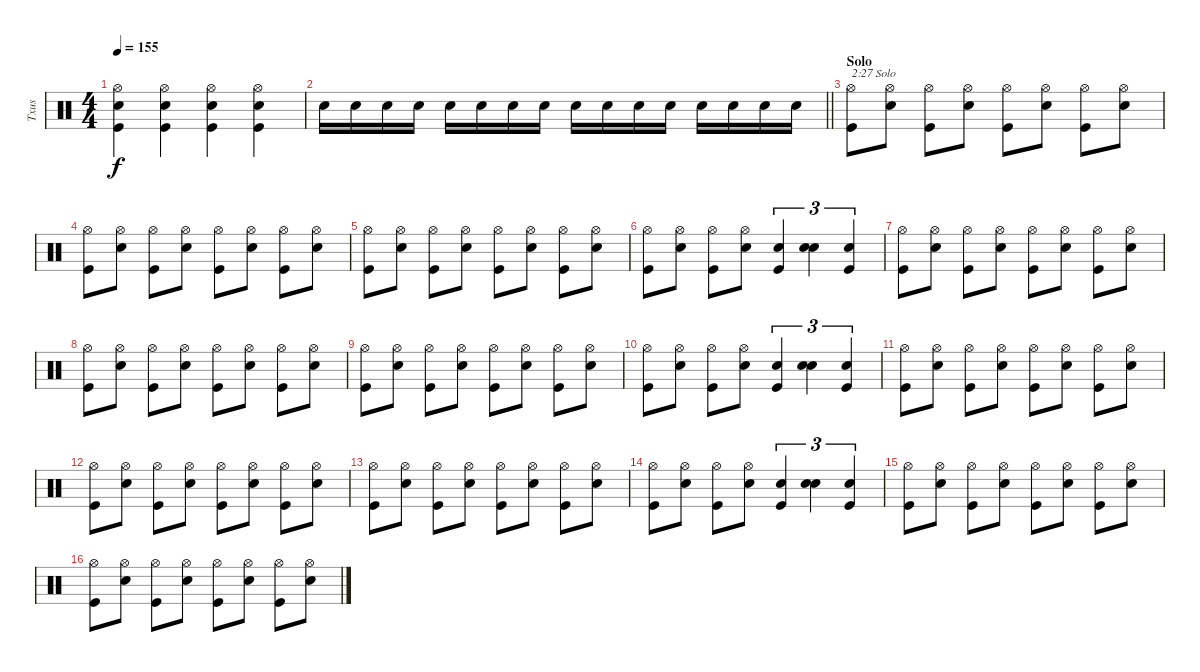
\track ("Txus" "Txus") {instrument percussion}
\staff {score}
\articulation defaults
\ts (4 4)
\tempo 155
\clef neutral
\ks c
("Kick (hit)" "Snare (hit) 2" "Hi-Hat (open)").4{dy f} ("Kick (hit)" "Snare (hit) 2" "Hi-Hat (open)").4 ("Kick (hit)" "Snare (hit) 2" "Hi-Hat (open)").4 ("Kick (hit)" "Snare (hit) 2" "Hi-Hat (open)").4 |
\barLineRight lightlight "Snare (hit) 2".16 "Snare (hit) 2".16 "Snare (hit) 2".16 "Snare (hit) 2".16 "Snare (hit) 2".16 "Snare (hit) 2".16 "Snare (hit) 2".16 "Snare (hit) 2".16 "Snare (hit) 2".16 "Snare (hit) 2".16 "Snare (hit) 2".16 "Snare (hit) 2".16 "Snare (hit) 2".16 "Snare (hit) 2".16 "Snare (hit) 2".16 "Snare (hit) 2".16
|
\section ("" "Solo")
("Kick (hit)" "Hi-Hat (open)").8{txt "2:27 Solo"} ("Snare (hit) 2" "Hi-Hat (open)").8 ("Kick (hit)" "Hi-Hat (open)").8 ("Snare (hit) 2" "Hi-Hat (open)").8 ("Kick (hit)" "Hi-Hat (open)").8 ("Snare (hit) 2" "Hi-Hat (open)").8 ("Kick (hit)" "Hi-Hat (open)").8 ("Snare (hit) 2" "Hi-Hat (open)").8 |
("Kick (hit)" "Hi-Hat (open)").8 ("Snare (hit) 2" "Hi-Hat (open)").8 ("Kick (hit)" "Hi-Hat (open)").8 ("Snare (hit) 2" "Hi-Hat (open)").8 ("Kick (hit)" "Hi-Hat (open)").8 ("Snare (hit) 2" "Hi-Hat (open)").8 ("Kick (hit)" "Hi-Hat (open)").8 ("Snare (hit) 2" "Hi-Hat (open)").8 |
("Kick (hit)" "Hi-Hat (open)").8 ("Snare (hit) 2" "Hi-Hat (open)").8 ("Kick (hit)" "Hi-Hat (open)").8 ("Snare (hit) 2" "Hi-Hat (open)").8 ("Kick (hit)" "Hi-Hat (open)").8 ("Snare (hit) 2" "Hi-Hat (open)").8 ("Kick (hit)" "Hi-Hat (open)").8 ("Snare (hit) 2" "Hi-Hat (open)").8 |
("Kick (hit)" "Hi-Hat (open)").8 ("Snare (hit) 2" "Hi-Hat (open)").8 ("Kick (hit)" "Hi-Hat (open)").8 ("Snare (hit) 2" "Hi-Hat (open)").8 ("Kick (hit)" "Snare (hit) 2").4{tu (3 2)} ("Snare (hit) 2" "Snare (hit) 2").4{tu (3 2)} ("Kick (hit)" "Snare (hit) 2").4{tu (3 2)} |
("Kick (hit)" "Hi-Hat (open)").8 ("Snare (hit) 2" "Hi-Hat (open)").8 ("Kick (hit)" "Hi-Hat (open)").8 ("Snare (hit) 2" "Hi-Hat (open)").8 ("Kick (hit)" "Hi-Hat (open)").8 ("Snare (hit) 2" "Hi-Hat (open)").8 ("Kick (hit)" "Hi-Hat (open)").8 ("Snare (hit) 2" "Hi-Hat (open)").8 |
("Kick (hit)" "Hi-Hat (open)").8 ("Snare (hit) 2" "Hi-Hat (open)").8 ("Kick (hit)" "Hi-Hat (open)").8 ("Snare (hit) 2" "Hi-Hat (open)").8 ("Kick (hit)" "Hi-Hat (open)").8 ("Snare (hit) 2" "Hi-Hat (open)").8 ("Kick (hit)" "Hi-Hat (open)").8 ("Snare (hit) 2" "Hi-Hat (open)").8 |
("Kick (hit)" "Hi-Hat (open)").8 ("Snare (hit) 2" "Hi-Hat (open)").8 ("Kick (hit)" "Hi-Hat (open)").8 ("Snare (hit) 2" "Hi-Hat (open)").8 ("Kick (hit)" "Hi-Hat (open)").8 ("Snare (hit) 2" "Hi-Hat (open)").8 ("Kick (hit)" "Hi-Hat (open)").8 ("Snare (hit) 2" "Hi-Hat (open)").8 |
("Kick (hit)" "Hi-Hat (open)").8 ("Snare (hit) 2" "Hi-Hat (open)").8 ("Kick (hit)" "Hi-Hat (open)").8 ("Snare (hit) 2" "Hi-Hat (open)").8 ("Kick (hit)" "Snare (hit) 2").4{tu (3 2)} ("Snare (hit) 2" "Snare (hit) 2").4{tu (3 2)} ("Kick (hit)" "Snare (hit) 2").4{tu (3 2)} |
("Kick (hit)" "Hi-Hat (open)").8 ("Snare (hit) 2" "Hi-Hat (open)").8 ("Kick (hit)" "Hi-Hat (open)").8 ("Snare (hit) 2" "Hi-Hat (open)").8 ("Kick (hit)" "Hi-Hat (open)").8 ("Snare (hit) 2" "Hi-Hat (open)").8 ("Kick (hit)" "Hi-Hat (open)").8 ("Snare (hit) 2" "Hi-Hat (open)").8 |
("Kick (hit)" "Hi-Hat (open)").8 ("Snare (hit) 2" "Hi-Hat (open)").8 ("Kick (hit)" "Hi-Hat (open)").8 ("Snare (hit) 2" "Hi-Hat (open)").8 ("Kick (hit)" "Hi-Hat (open)").8 ("Snare (hit) 2" "Hi-Hat (open)").8 ("Kick (hit)" "Hi-Hat (open)").8 ("Snare (hit) 2" "Hi-Hat (open)").8 |
("Kick (hit)" "Hi-Hat (open)").8 ("Snare (hit) 2" "Hi-Hat (open)").8 ("Kick (hit)" "Hi-Hat (open)").8 ("Snare (hit) 2" "Hi-Hat (open)").8 ("Kick (hit)" "Hi-Hat (open)").8 ("Snare (hit) 2" "Hi-Hat (open)").8 ("Kick (hit)" "Hi-Hat (open)").8 ("Snare (hit) 2" "Hi-Hat (open)").8 |
("Kick (hit)" "Hi-Hat (open)").8 ("Snare (hit) 2" "Hi-Hat (open)").8 ("Kick (hit)" "Hi-Hat (open)").8 ("Snare (hit) 2" "Hi-Hat (open)").8 ("Kick (hit)" "Snare (hit) 2").4{tu (3 2)} ("Snare (hit) 2" "Snare (hit) 2").4{tu (3 2)} ("Kick (hit)" "Snare (hit) 2").4{tu (3 2)} |
("Kick (hit)" "Hi-Hat (open)").8 ("Snare (hit) 2" "Hi-Hat (open)").8 ("Kick (hit)" "Hi-Hat (open)").8 ("Snare (hit) 2" "Hi-Hat (open)").8 ("Kick (hit)" "Hi-Hat (open)").8 ("Snare (hit) 2" "Hi-Hat (open)").8 ("Kick (hit)" "Hi-Hat (open)").8 ("Snare (hit) 2" "Hi-Hat (open)").8 |
("Kick (hit)" "Hi-Hat (open)").8 ("Snare (hit) 2" "Hi-Hat (open)").8 ("Kick (hit)" "Hi-Hat (open)").8 ("Snare (hit) 2" "Hi-Hat (open)").8 ("Kick (hit)" "Hi-Hat (open)").8 ("Snare (hit) 2" "Hi-Hat (open)").8 ("Kick (hit)" "Hi-Hat (open)").8 ("Snare (hit) 2" "Hi-Hat (open)").8
